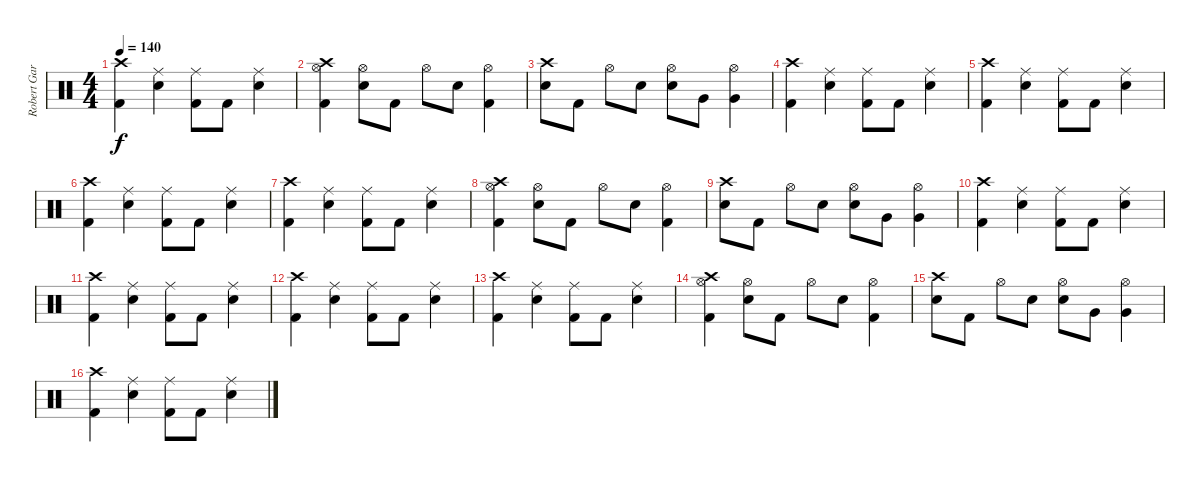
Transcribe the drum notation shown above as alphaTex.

\track ("Robert Garven" "Robert Gar") {instrument percussion}
\staff {score}
\articulation defaults
\ts (4 4)
\tempo 140
\clef neutral
\ks c
("Crash high (hit)" "Kick (hit) 2").4{dy f} ("Ride (middle)" "Electric Snare (hit)").4 ("Ride (middle)" "Kick (hit) 2").8 "Kick (hit) 2".8 ("Ride (middle)" "Electric Snare (hit)").4 |
("Crash high (hit)" "Hi-Hat (open)" "Kick (hit) 2").4 ("Hi-Hat (open)" "Electric Snare (hit)").8 "Kick (hit) 2".8 "Hi-Hat (open)".8 "Electric Snare (hit)".8 ("Hi-Hat (open)" "Kick (hit) 2").4 |
("Crash high (hit)" "Electric Snare (hit)").8 "Kick (hit) 2".8 "Hi-Hat (open)".8 "Electric Snare (hit)".8 ("Hi-Hat (open)" "Electric Snare (hit)").8 "Very Low Tom (hit)".8 ("Hi-Hat (open)" "Very Low Tom (hit)").4 |
("Crash high (hit)" "Kick (hit) 2").4 ("Ride (middle)" "Electric Snare (hit)").4 ("Ride (middle)" "Kick (hit) 2").8 "Kick (hit) 2".8 ("Ride (middle)" "Electric Snare (hit)").4 |
("Crash high (hit)" "Kick (hit) 2").4 ("Ride (middle)" "Electric Snare (hit)").4 ("Ride (middle)" "Kick (hit) 2").8 "Kick (hit) 2".8 ("Ride (middle)" "Electric Snare (hit)").4 |
("Crash high (hit)" "Kick (hit) 2").4 ("Ride (middle)" "Electric Snare (hit)").4 ("Ride (middle)" "Kick (hit) 2").8 "Kick (hit) 2".8 ("Ride (middle)" "Electric Snare (hit)").4 |
("Crash high (hit)" "Kick (hit) 2").4 ("Ride (middle)" "Electric Snare (hit)").4 ("Ride (middle)" "Kick (hit) 2").8 "Kick (hit) 2".8 ("Ride (middle)" "Electric Snare (hit)").4 |
("Crash high (hit)" "Hi-Hat (open)" "Kick (hit) 2").4 ("Hi-Hat (open)" "Electric Snare (hit)").8 "Kick (hit) 2".8 "Hi-Hat (open)".8 "Electric Snare (hit)".8 ("Hi-Hat (open)" "Kick (hit) 2").4 |
("Crash high (hit)" "Electric Snare (hit)").8 "Kick (hit) 2".8 "Hi-Hat (open)".8 "Electric Snare (hit)".8 ("Hi-Hat (open)" "Electric Snare (hit)").8 "Very Low Tom (hit)".8 ("Hi-Hat (open)" "Very Low Tom (hit)").4 |
("Crash high (hit)" "Kick (hit) 2").4 ("Ride (middle)" "Electric Snare (hit)").4 ("Ride (middle)" "Kick (hit) 2").8 "Kick (hit) 2".8 ("Ride (middle)" "Electric Snare (hit)").4 |
("Crash high (hit)" "Kick (hit) 2").4 ("Ride (middle)" "Electric Snare (hit)").4 ("Ride (middle)" "Kick (hit) 2").8 "Kick (hit) 2".8 ("Ride (middle)" "Electric Snare (hit)").4 |
("Crash high (hit)" "Kick (hit) 2").4 ("Ride (middle)" "Electric Snare (hit)").4 ("Ride (middle)" "Kick (hit) 2").8 "Kick (hit) 2".8 ("Ride (middle)" "Electric Snare (hit)").4 |
("Crash high (hit)" "Kick (hit) 2").4 ("Ride (middle)" "Electric Snare (hit)").4 ("Ride (middle)" "Kick (hit) 2").8 "Kick (hit) 2".8 ("Ride (middle)" "Electric Snare (hit)").4 |
("Crash high (hit)" "Hi-Hat (open)" "Kick (hit) 2").4 ("Hi-Hat (open)" "Electric Snare (hit)").8 "Kick (hit) 2".8 "Hi-Hat (open)".8 "Electric Snare (hit)".8 ("Hi-Hat (open)" "Kick (hit) 2").4 |
("Crash high (hit)" "Electric Snare (hit)").8 "Kick (hit) 2".8 "Hi-Hat (open)".8 "Electric Snare (hit)".8 ("Hi-Hat (open)" "Electric Snare (hit)").8 "Very Low Tom (hit)".8 ("Hi-Hat (open)" "Very Low Tom (hit)").4 |
("Crash high (hit)" "Kick (hit) 2").4 ("Ride (middle)" "Electric Snare (hit)").4 ("Ride (middle)" "Kick (hit) 2").8 "Kick (hit) 2".8 ("Ride (middle)" "Electric Snare (hit)").4
